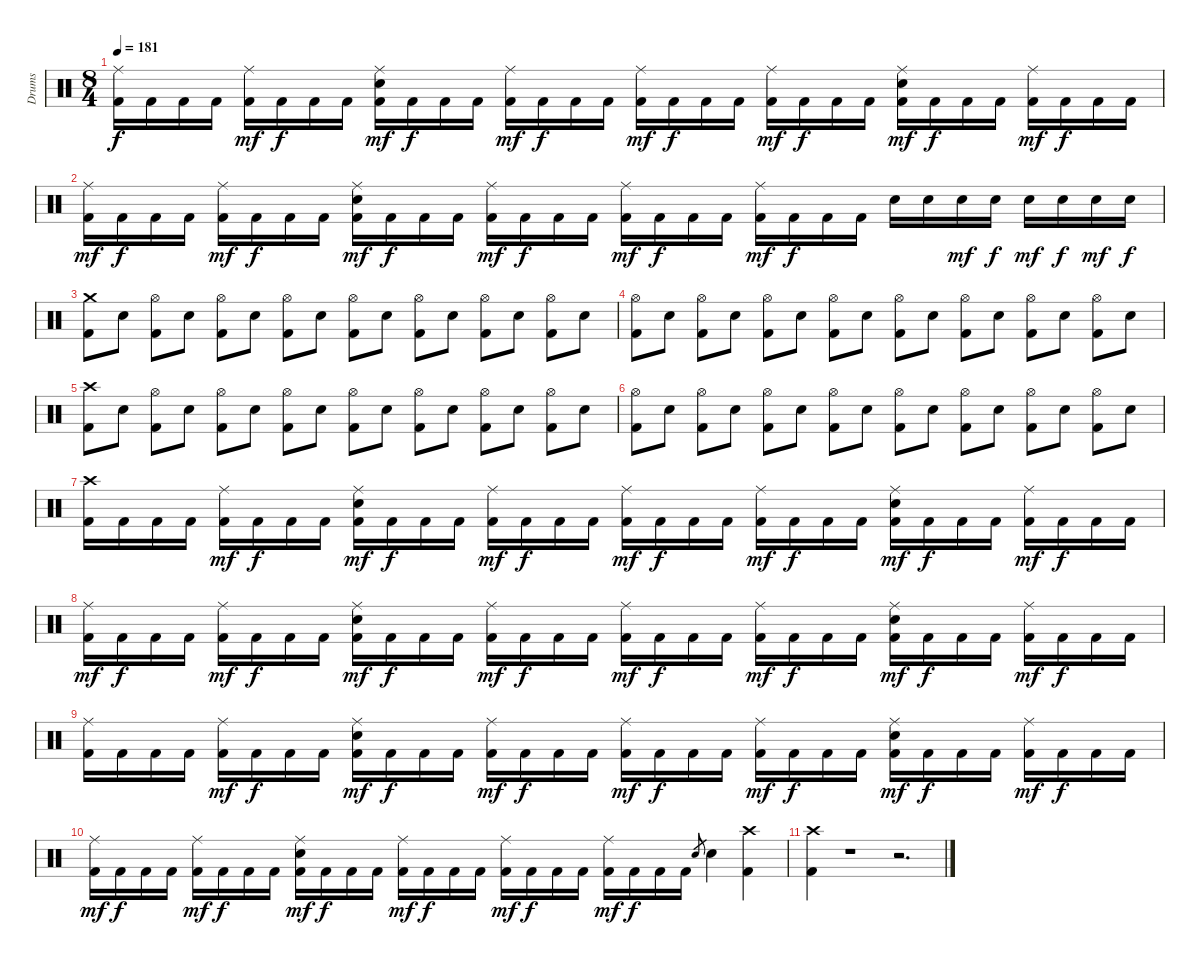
\track ("Drums" "Drums") {instrument percussion}
\staff {score}
\articulation defaults
\ts (8 4)
\tempo 181
\clef neutral
\ks c
("Ride (middle)" "Kick (hit) 2").16{dy f} "Kick (hit) 2".16 "Kick (hit) 2".16 "Kick (hit) 2".16 ("Ride (middle)" "Kick (hit) 2").16{dy mf} "Kick (hit) 2".16{dy f} "Kick (hit) 2".16 "Kick (hit) 2".16 ("Ride (middle)" "Snare (hit) 2" "Kick (hit) 2").16{dy mf} "Kick (hit) 2".16{dy f} "Kick (hit) 2".16 "Kick (hit) 2".16 ("Ride (middle)" "Kick (hit) 2").16{dy mf} "Kick (hit) 2".16{dy f} "Kick (hit) 2".16 "Kick (hit) 2".16 ("Ride (middle)" "Kick (hit) 2").16{dy mf} "Kick (hit) 2".16{dy f} "Kick (hit) 2".16 "Kick (hit) 2".16 ("Ride (middle)" "Kick (hit) 2").16{dy mf} "Kick (hit) 2".16{dy f} "Kick (hit) 2".16 "Kick (hit) 2".16 ("Ride (middle)" "Snare (hit) 2" "Kick (hit) 2").16{dy mf} "Kick (hit) 2".16{dy f} "Kick (hit) 2".16 "Kick (hit) 2".16 ("Ride (middle)" "Kick (hit) 2").16{dy mf} "Kick (hit) 2".16{dy f} "Kick (hit) 2".16 "Kick (hit) 2".16 |
("Ride (middle)" "Kick (hit) 2").16{dy mf} "Kick (hit) 2".16{dy f} "Kick (hit) 2".16 "Kick (hit) 2".16 ("Ride (middle)" "Kick (hit) 2").16{dy mf} "Kick (hit) 2".16{dy f} "Kick (hit) 2".16 "Kick (hit) 2".16 ("Ride (middle)" "Snare (hit) 2" "Kick (hit) 2").16{dy mf} "Kick (hit) 2".16{dy f} "Kick (hit) 2".16 "Kick (hit) 2".16 ("Ride (middle)" "Kick (hit) 2").16{dy mf} "Kick (hit) 2".16{dy f} "Kick (hit) 2".16 "Kick (hit) 2".16 ("Ride (middle)" "Kick (hit) 2").16{dy mf} "Kick (hit) 2".16{dy f} "Kick (hit) 2".16 "Kick (hit) 2".16 ("Ride (middle)" "Kick (hit) 2").16{dy mf} "Kick (hit) 2".16{dy f} "Kick (hit) 2".16 "Kick (hit) 2".16 "Snare (hit) 2".16 "Snare (hit) 2".16 "Snare (hit) 2".16{dy mf} "Snare (hit) 2".16{dy f} "Snare (hit) 2".16{dy mf} "Snare (hit) 2".16{dy f} "Snare (hit) 2".16{dy mf} "Snare (hit) 2".16{dy f} |
("Crash medium (hit)" "Kick (hit) 2").8 "Snare (hit) 2".8 ("Hi-Hat (open)" "Kick (hit) 2").8 "Snare (hit) 2".8 ("Hi-Hat (open)" "Kick (hit) 2").8 "Snare (hit) 2".8 ("Hi-Hat (open)" "Kick (hit) 2").8 "Snare (hit) 2".8 ("Hi-Hat (open)" "Kick (hit) 2").8 "Snare (hit) 2".8 ("Hi-Hat (open)" "Kick (hit) 2").8 "Snare (hit) 2".8 ("Hi-Hat (open)" "Kick (hit) 2").8 "Snare (hit) 2".8 ("Hi-Hat (open)" "Kick (hit) 2").8 "Snare (hit) 2".8 |
("Hi-Hat (open)" "Kick (hit) 2").8 "Snare (hit) 2".8 ("Hi-Hat (open)" "Kick (hit) 2").8 "Snare (hit) 2".8 ("Hi-Hat (open)" "Kick (hit) 2").8 "Snare (hit) 2".8 ("Hi-Hat (open)" "Kick (hit) 2").8 "Snare (hit) 2".8 ("Hi-Hat (open)" "Kick (hit) 2").8 "Snare (hit) 2".8 ("Hi-Hat (open)" "Kick (hit) 2").8 "Snare (hit) 2".8 ("Hi-Hat (open)" "Kick (hit) 2").8 "Snare (hit) 2".8 ("Hi-Hat (open)" "Kick (hit) 2").8 "Snare (hit) 2".8 |
("Crash high (hit)" "Kick (hit) 2").8 "Snare (hit) 2".8 ("Hi-Hat (open)" "Kick (hit) 2").8 "Snare (hit) 2".8 ("Hi-Hat (open)" "Kick (hit) 2").8 "Snare (hit) 2".8 ("Hi-Hat (open)" "Kick (hit) 2").8 "Snare (hit) 2".8 ("Hi-Hat (open)" "Kick (hit) 2").8 "Snare (hit) 2".8 ("Hi-Hat (open)" "Kick (hit) 2").8 "Snare (hit) 2".8 ("Hi-Hat (open)" "Kick (hit) 2").8 "Snare (hit) 2".8 ("Hi-Hat (open)" "Kick (hit) 2").8 "Snare (hit) 2".8 |
("Hi-Hat (open)" "Kick (hit) 2").8 "Snare (hit) 2".8 ("Hi-Hat (open)" "Kick (hit) 2").8 "Snare (hit) 2".8 ("Hi-Hat (open)" "Kick (hit) 2").8 "Snare (hit) 2".8 ("Hi-Hat (open)" "Kick (hit) 2").8 "Snare (hit) 2".8 ("Hi-Hat (open)" "Kick (hit) 2").8 "Snare (hit) 2".8 ("Hi-Hat (open)" "Kick (hit) 2").8 "Snare (hit) 2".8 ("Hi-Hat (open)" "Kick (hit) 2").8 "Snare (hit) 2".8 ("Hi-Hat (open)" "Kick (hit) 2").8 "Snare (hit) 2".8 |
("Crash high (hit)" "Kick (hit) 2").16 "Kick (hit) 2".16 "Kick (hit) 2".16 "Kick (hit) 2".16 ("Ride (middle)" "Kick (hit) 2").16{dy mf} "Kick (hit) 2".16{dy f} "Kick (hit) 2".16 "Kick (hit) 2".16 ("Ride (middle)" "Snare (hit) 2" "Kick (hit) 2").16{dy mf} "Kick (hit) 2".16{dy f} "Kick (hit) 2".16 "Kick (hit) 2".16 ("Ride (middle)" "Kick (hit) 2").16{dy mf} "Kick (hit) 2".16{dy f} "Kick (hit) 2".16 "Kick (hit) 2".16 ("Ride (middle)" "Kick (hit) 2").16{dy mf} "Kick (hit) 2".16{dy f} "Kick (hit) 2".16 "Kick (hit) 2".16 ("Ride (middle)" "Kick (hit) 2").16{dy mf} "Kick (hit) 2".16{dy f} "Kick (hit) 2".16 "Kick (hit) 2".16 ("Ride (middle)" "Snare (hit) 2" "Kick (hit) 2").16{dy mf} "Kick (hit) 2".16{dy f} "Kick (hit) 2".16 "Kick (hit) 2".16 ("Ride (middle)" "Kick (hit) 2").16{dy mf} "Kick (hit) 2".16{dy f} "Kick (hit) 2".16 "Kick (hit) 2".16 |
("Ride (middle)" "Kick (hit) 2").16{dy mf} "Kick (hit) 2".16{dy f} "Kick (hit) 2".16 "Kick (hit) 2".16 ("Ride (middle)" "Kick (hit) 2").16{dy mf} "Kick (hit) 2".16{dy f} "Kick (hit) 2".16 "Kick (hit) 2".16 ("Ride (middle)" "Snare (hit) 2" "Kick (hit) 2").16{dy mf} "Kick (hit) 2".16{dy f} "Kick (hit) 2".16 "Kick (hit) 2".16 ("Ride (middle)" "Kick (hit) 2").16{dy mf} "Kick (hit) 2".16{dy f} "Kick (hit) 2".16 "Kick (hit) 2".16 ("Ride (middle)" "Kick (hit) 2").16{dy mf} "Kick (hit) 2".16{dy f} "Kick (hit) 2".16 "Kick (hit) 2".16 ("Ride (middle)" "Kick (hit) 2").16{dy mf} "Kick (hit) 2".16{dy f} "Kick (hit) 2".16 "Kick (hit) 2".16 ("Ride (middle)" "Snare (hit) 2" "Kick (hit) 2").16{dy mf} "Kick (hit) 2".16{dy f} "Kick (hit) 2".16 "Kick (hit) 2".16 ("Ride (middle)" "Kick (hit) 2").16{dy mf} "Kick (hit) 2".16{dy f} "Kick (hit) 2".16 "Kick (hit) 2".16 |
("Ride (middle)" "Kick (hit) 2").16 "Kick (hit) 2".16 "Kick (hit) 2".16 "Kick (hit) 2".16 ("Ride (middle)" "Kick (hit) 2").16{dy mf} "Kick (hit) 2".16{dy f} "Kick (hit) 2".16 "Kick (hit) 2".16 ("Ride (middle)" "Snare (hit) 2" "Kick (hit) 2").16{dy mf} "Kick (hit) 2".16{dy f} "Kick (hit) 2".16 "Kick (hit) 2".16 ("Ride (middle)" "Kick (hit) 2").16{dy mf} "Kick (hit) 2".16{dy f} "Kick (hit) 2".16 "Kick (hit) 2".16 ("Ride (middle)" "Kick (hit) 2").16{dy mf} "Kick (hit) 2".16{dy f} "Kick (hit) 2".16 "Kick (hit) 2".16 ("Ride (middle)" "Kick (hit) 2").16{dy mf} "Kick (hit) 2".16{dy f} "Kick (hit) 2".16 "Kick (hit) 2".16 ("Ride (middle)" "Snare (hit) 2" "Kick (hit) 2").16{dy mf} "Kick (hit) 2".16{dy f} "Kick (hit) 2".16 "Kick (hit) 2".16 ("Ride (middle)" "Kick (hit) 2").16{dy mf} "Kick (hit) 2".16{dy f} "Kick (hit) 2".16 "Kick (hit) 2".16 |
("Ride (middle)" "Kick (hit) 2").16{dy mf} "Kick (hit) 2".16{dy f} "Kick (hit) 2".16 "Kick (hit) 2".16 ("Ride (middle)" "Kick (hit) 2").16{dy mf} "Kick (hit) 2".16{dy f} "Kick (hit) 2".16 "Kick (hit) 2".16 ("Ride (middle)" "Snare (hit) 2" "Kick (hit) 2").16{dy mf} "Kick (hit) 2".16{dy f} "Kick (hit) 2".16 "Kick (hit) 2".16 ("Ride (middle)" "Kick (hit) 2").16{dy mf} "Kick (hit) 2".16{dy f} "Kick (hit) 2".16 "Kick (hit) 2".16 ("Ride (middle)" "Kick (hit) 2").16{dy mf} "Kick (hit) 2".16{dy f} "Kick (hit) 2".16 "Kick (hit) 2".16 ("Ride (middle)" "Kick (hit) 2").16{dy mf} "Kick (hit) 2".16{dy f} "Kick (hit) 2".16 "Kick (hit) 2".16 "Snare (hit) 2".8{gr} "Snare (hit) 2".4 ("Crash high (hit)" "Kick (hit) 2").4 |
("Crash high (hit)" "Kick (hit) 2").4 r.1 r.2{d}
